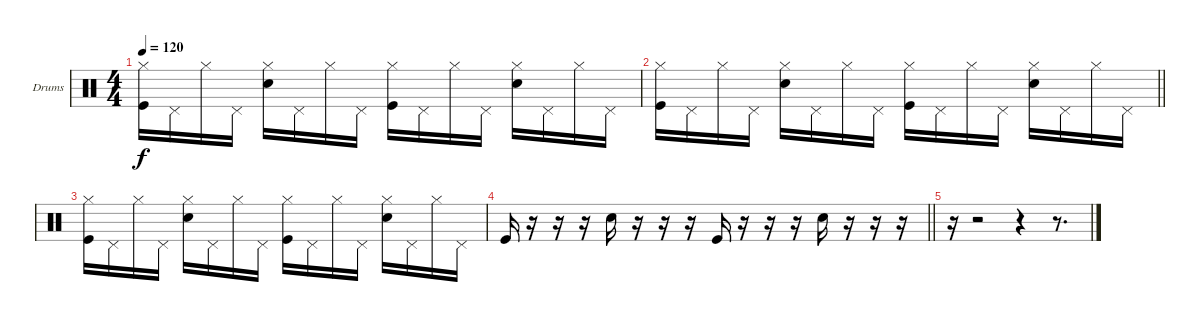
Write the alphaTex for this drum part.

\bracketExtendMode groupsimilarinstruments
\firstSystemTrackNameOrientation horizontal
\otherSystemsTrackNameOrientation horizontal
\track ("Drumkit" "Drums") {instrument percussion}
\staff {score}
\articulation defaults
\ts (4 4)
\tempo 120
\clef neutral
\ks c
("Hi-Hat (closed)" "Kick (hit)").16{dy f} "Pedal Hi-Hat (hit)".16 "Hi-Hat (closed)".16 "Pedal Hi-Hat (hit)".16 ("Hi-Hat (closed)" "Snare (hit) 2").16 "Pedal Hi-Hat (hit)".16 "Hi-Hat (closed)".16 "Pedal Hi-Hat (hit)".16 ("Hi-Hat (closed)" "Kick (hit)").16 "Pedal Hi-Hat (hit)".16 "Hi-Hat (closed)".16 "Pedal Hi-Hat (hit)".16 ("Hi-Hat (closed)" "Snare (hit) 2").16 "Pedal Hi-Hat (hit)".16 "Hi-Hat (closed)".16 "Pedal Hi-Hat (hit)".16 |
\barLineRight lightlight
("Hi-Hat (closed)" "Kick (hit)").16 "Pedal Hi-Hat (hit)".16 "Hi-Hat (closed)".16 "Pedal Hi-Hat (hit)".16 ("Hi-Hat (closed)" "Snare (hit) 2").16 "Pedal Hi-Hat (hit)".16 "Hi-Hat (closed)".16 "Pedal Hi-Hat (hit)".16 ("Hi-Hat (closed)" "Kick (hit)").16 "Pedal Hi-Hat (hit)".16 "Hi-Hat (closed)".16 "Pedal Hi-Hat (hit)".16 ("Hi-Hat (closed)" "Snare (hit) 2").16 "Pedal Hi-Hat (hit)".16 "Hi-Hat (closed)".16 "Pedal Hi-Hat (hit)".16 |
("Hi-Hat (closed)" "Kick (hit)").16 "Pedal Hi-Hat (hit)".16 "Hi-Hat (closed)".16 "Pedal Hi-Hat (hit)".16 ("Hi-Hat (closed)" "Snare (hit) 2").16 "Pedal Hi-Hat (hit)".16 "Hi-Hat (closed)".16 "Pedal Hi-Hat (hit)".16 ("Hi-Hat (closed)" "Kick (hit)").16 "Pedal Hi-Hat (hit)".16 "Hi-Hat (closed)".16 "Pedal Hi-Hat (hit)".16 ("Hi-Hat (closed)" "Snare (hit) 2").16 "Pedal Hi-Hat (hit)".16 "Hi-Hat (closed)".16 "Pedal Hi-Hat (hit)".16 |
\barLineRight lightlight "Kick (hit)".16
r.16 r.16 r.16 "Snare (hit) 2".16 r.16 r.16 r.16 "Kick (hit)".16 r.16 r.16 r.16 "Snare (hit) 2".16 r.16 r.16 r.16 |
r.16 r.2 r.4 r.8{d}
